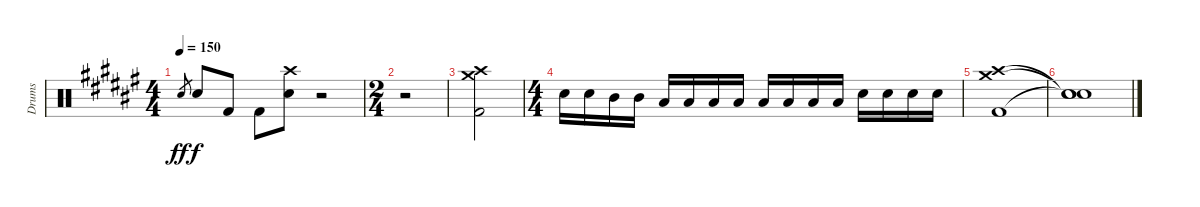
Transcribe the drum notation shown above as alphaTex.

\track ("Drums" "Drums") {instrument percussion}
\staff {score}
\articulation defaults
\ts (4 4)
\tempo 150
\clef neutral
\ks d#minor "Electric Snare (hit)".8{gr dy ff} "Electric Snare (hit)".8{dy f} "Kick (hit) 2".8 "Kick (hit) 2".8
("Electric Snare (hit)" "Crash high (hit)").8 r.2 |
\ts (2 4)
r.2 |
("Kick (hit) 2" "Crash medium (hit)" "Crash high (hit)").2 |
\ts (4 4)
"Electric Snare (hit)".16 "Electric Snare (hit)".16 "Mid Tom (hit)".16 "Mid Tom (hit)".16 "Low Tom (hit)".16 "Low Tom (hit)".16 "Low Floor Tom (hit)".16 "Low Floor Tom (hit)".16 "Low Tom (hit)".16 "Low Tom (hit)".16 "Low Floor Tom (hit)".16 "Low Floor Tom (hit)".16 "Electric Snare (hit)".16 "Electric Snare (hit)".16 "Electric Snare (hit)".16 "Electric Snare (hit)".16 |
("Kick (hit) 2" "Crash medium (hit)" "Crash high (hit)").1 |
("Snare (hit)"{t} "Snare (hit)"{t} "Snare (hit)"{t}).1
